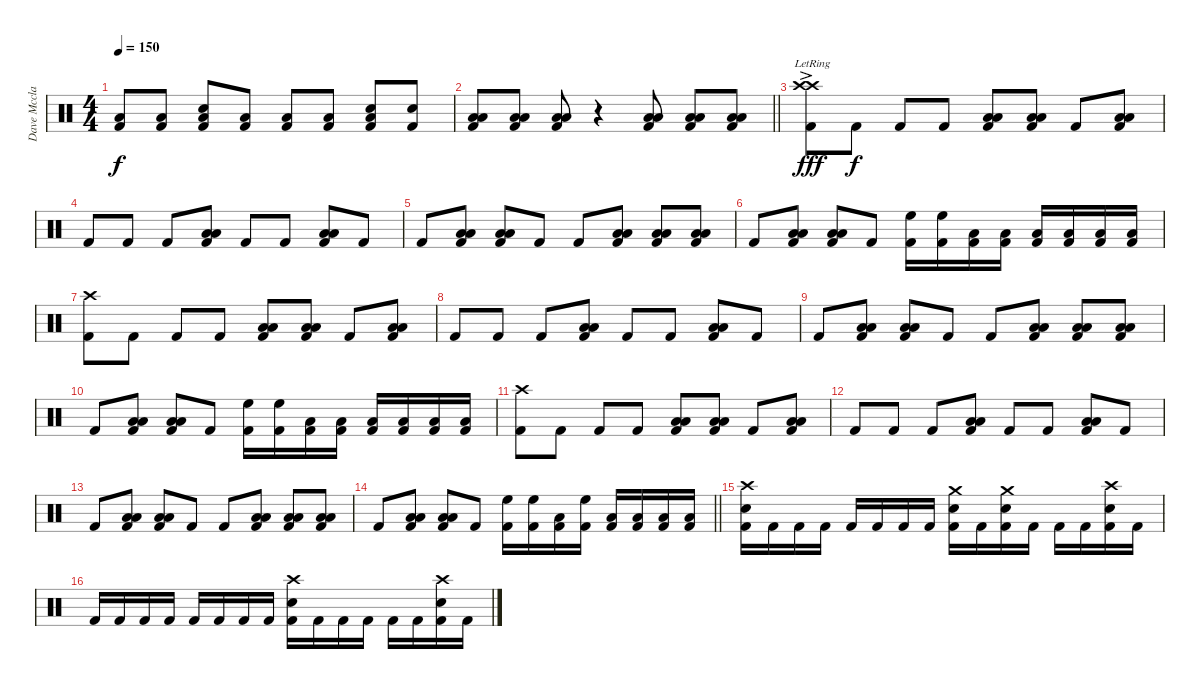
\track ("Dave Mcclain" "Dave Mccla") {instrument percussion}
\staff {score}
\articulation defaults
\ts (4 4)
\tempo 150
\clef neutral
\ks c
("Low Floor Tom (hit)" "Kick (hit) 2").8{dy f} ("Low Floor Tom (hit)" "Kick (hit) 2").8 ("Low Floor Tom (hit)" "Electric Snare (hit)" "Kick (hit) 2").8 ("Low Floor Tom (hit)" "Kick (hit) 2").8 ("Low Floor Tom (hit)" "Kick (hit) 2").8 ("Low Floor Tom (hit)" "Kick (hit) 2").8 ("Low Floor Tom (hit)" "Electric Snare (hit)" "Kick (hit) 2").8 ("Snare (hit)" "Kick (hit) 2").8 |
\barLineRight lightlight
("Low Tom (hit)" "Low Floor Tom (hit)" "Kick (hit) 2").8 ("Low Tom (hit)" "Low Floor Tom (hit)" "Kick (hit) 2").8 ("Low Tom (hit)" "Low Floor Tom (hit)" "Kick (hit) 2").8 r.4 ("Low Tom (hit)" "Low Floor Tom (hit)" "Kick (hit) 2").8 ("Low Tom (hit)" "Low Floor Tom (hit)" "Kick (hit) 2").8 ("Low Tom (hit)" "Low Floor Tom (hit)" "Kick (hit) 2").8 |
\section ("" "")
("Crash high (hit)"{ac lr} "Crash high (hit)"{ac lr} "Kick (hit) 2").8{dy fff} "Kick (hit) 2".8{dy f} "Kick (hit) 2".8 "Kick (hit) 2".8 ("Low Tom (hit)" "Low Floor Tom (hit)" "Kick (hit) 2").8 ("Low Tom (hit)" "Low Floor Tom (hit)" "Kick (hit) 2").8 "Kick (hit) 2".8 ("Low Tom (hit)" "Low Floor Tom (hit)" "Kick (hit) 2").8 |
"Kick (hit) 2".8 "Kick (hit) 2".8 "Kick (hit) 2".8 ("Low Tom (hit)" "Low Floor Tom (hit)" "Kick (hit) 2").8 "Kick (hit) 2".8 "Kick (hit) 2".8 ("Low Tom (hit)" "Low Floor Tom (hit)" "Kick (hit) 2").8 "Kick (hit) 2".8 |
"Kick (hit) 2".8 ("Low Tom (hit)" "Low Floor Tom (hit)" "Kick (hit) 2").8 ("Low Tom (hit)" "Low Floor Tom (hit)" "Kick (hit) 2").8 "Kick (hit) 2".8 "Kick (hit) 2".8 ("Low Tom (hit)" "Low Floor Tom (hit)" "Kick (hit) 2").8 ("Low Tom (hit)" "Low Floor Tom (hit)" "Kick (hit) 2").8 ("Low Tom (hit)" "Low Floor Tom (hit)" "Kick (hit) 2").8 |
"Kick (hit) 2".8 ("Low Tom (hit)" "Low Floor Tom (hit)" "Kick (hit) 2").8 ("Low Tom (hit)" "Low Floor Tom (hit)" "Kick (hit) 2").8 "Kick (hit) 2".8 ("High Floor Tom (hit)" "Kick (hit) 2").16 ("High Floor Tom (hit)" "Kick (hit) 2").16 ("Low Tom (hit)" "Kick (hit) 2").16 ("Low Tom (hit)" "Kick (hit) 2").16 ("Low Floor Tom (hit)" "Kick (hit) 2").16 ("Low Floor Tom (hit)" "Kick (hit) 2").16 ("Low Floor Tom (hit)" "Kick (hit) 2").16 ("Low Floor Tom (hit)" "Kick (hit) 2").16 |
("Crash high (hit)" "Kick (hit) 2").8 "Kick (hit) 2".8 "Kick (hit) 2".8 "Kick (hit) 2".8 ("Low Tom (hit)" "Low Floor Tom (hit)" "Kick (hit) 2").8 ("Low Tom (hit)" "Low Floor Tom (hit)" "Kick (hit) 2").8 "Kick (hit) 2".8 ("Low Tom (hit)" "Low Floor Tom (hit)" "Kick (hit) 2").8 |
"Kick (hit) 2".8 "Kick (hit) 2".8 "Kick (hit) 2".8 ("Low Tom (hit)" "Low Floor Tom (hit)" "Kick (hit) 2").8 "Kick (hit) 2".8 "Kick (hit) 2".8 ("Low Tom (hit)" "Low Floor Tom (hit)" "Kick (hit) 2").8 "Kick (hit) 2".8 |
"Kick (hit) 2".8 ("Low Tom (hit)" "Low Floor Tom (hit)" "Kick (hit) 2").8 ("Low Tom (hit)" "Low Floor Tom (hit)" "Kick (hit) 2").8 "Kick (hit) 2".8 "Kick (hit) 2".8 ("Low Tom (hit)" "Low Floor Tom (hit)" "Kick (hit) 2").8 ("Low Tom (hit)" "Low Floor Tom (hit)" "Kick (hit) 2").8 ("Low Tom (hit)" "Low Floor Tom (hit)" "Kick (hit) 2").8 |
"Kick (hit) 2".8 ("Low Tom (hit)" "Low Floor Tom (hit)" "Kick (hit) 2").8 ("Low Tom (hit)" "Low Floor Tom (hit)" "Kick (hit) 2").8 "Kick (hit) 2".8 ("High Floor Tom (hit)" "Kick (hit) 2").16 ("High Floor Tom (hit)" "Kick (hit) 2").16 ("Low Tom (hit)" "Kick (hit) 2").16 ("Low Tom (hit)" "Kick (hit) 2").16 ("Low Floor Tom (hit)" "Kick (hit) 2").16 ("Low Floor Tom (hit)" "Kick (hit) 2").16 ("Low Floor Tom (hit)" "Kick (hit) 2").16 ("Low Floor Tom (hit)" "Kick (hit) 2").16 |
("Crash high (hit)" "Kick (hit) 2").8 "Kick (hit) 2".8 "Kick (hit) 2".8 "Kick (hit) 2".8 ("Low Tom (hit)" "Low Floor Tom (hit)" "Kick (hit) 2").8 ("Low Tom (hit)" "Low Floor Tom (hit)" "Kick (hit) 2").8 "Kick (hit) 2".8 ("Low Tom (hit)" "Low Floor Tom (hit)" "Kick (hit) 2").8 |
"Kick (hit) 2".8 "Kick (hit) 2".8 "Kick (hit) 2".8 ("Low Tom (hit)" "Low Floor Tom (hit)" "Kick (hit) 2").8 "Kick (hit) 2".8 "Kick (hit) 2".8 ("Low Tom (hit)" "Low Floor Tom (hit)" "Kick (hit) 2").8 "Kick (hit) 2".8 |
"Kick (hit) 2".8 ("Low Tom (hit)" "Low Floor Tom (hit)" "Kick (hit) 2").8 ("Low Tom (hit)" "Low Floor Tom (hit)" "Kick (hit) 2").8 "Kick (hit) 2".8 "Kick (hit) 2".8 ("Low Tom (hit)" "Low Floor Tom (hit)" "Kick (hit) 2").8 ("Low Tom (hit)" "Low Floor Tom (hit)" "Kick (hit) 2").8 ("Low Tom (hit)" "Low Floor Tom (hit)" "Kick (hit) 2").8 |
\barLineRight lightlight "Kick (hit) 2".8
("Low Tom (hit)" "Low Floor Tom (hit)" "Kick (hit) 2").8 ("Low Tom (hit)" "Low Floor Tom (hit)" "Kick (hit) 2").8 "Kick (hit) 2".8 ("High Floor Tom (hit)" "Kick (hit) 2").16 ("High Floor Tom (hit)" "Kick (hit) 2").16 ("Low Tom (hit)" "Kick (hit) 2").16 ("High Floor Tom (hit)" "Kick (hit) 2").16 ("Low Tom (hit)" "Kick (hit) 2").16 ("Low Tom (hit)" "Kick (hit) 2").16 ("Low Floor Tom (hit)" "Kick (hit) 2").16 ("Low Floor Tom (hit)" "Kick (hit) 2").16 |
\section ("" "")
("Crash high (hit)" "Electric Snare (hit)" "Kick (hit) 2").16 "Kick (hit) 2".16 "Kick (hit) 2".16 "Kick (hit) 2".16 "Kick (hit) 2".16 "Kick (hit) 2".16 "Kick (hit) 2".16 "Kick (hit) 2".16 ("Crash medium (hit)" "Electric Snare (hit)" "Kick (hit) 2").16 "Kick (hit) 2".16 ("Crash medium (hit)" "Electric Snare (hit)" "Kick (hit) 2").16 "Kick (hit) 2".16 "Kick (hit) 2".16 "Kick (hit) 2".16 ("Crash high (hit)" "Electric Snare (hit)" "Kick (hit) 2").16 "Kick (hit) 2".16 |
"Kick (hit) 2".16 "Kick (hit) 2".16 "Kick (hit) 2".16 "Kick (hit) 2".16 "Kick (hit) 2".16 "Kick (hit) 2".16 "Kick (hit) 2".16 "Kick (hit) 2".16 ("Crash high (hit)" "Electric Snare (hit)" "Kick (hit) 2").16 "Kick (hit) 2".16 "Kick (hit) 2".16 "Kick (hit) 2".16 "Kick (hit) 2".16 "Kick (hit) 2".16 ("Crash high (hit)" "Electric Snare (hit)" "Kick (hit) 2").16 "Kick (hit) 2".16
